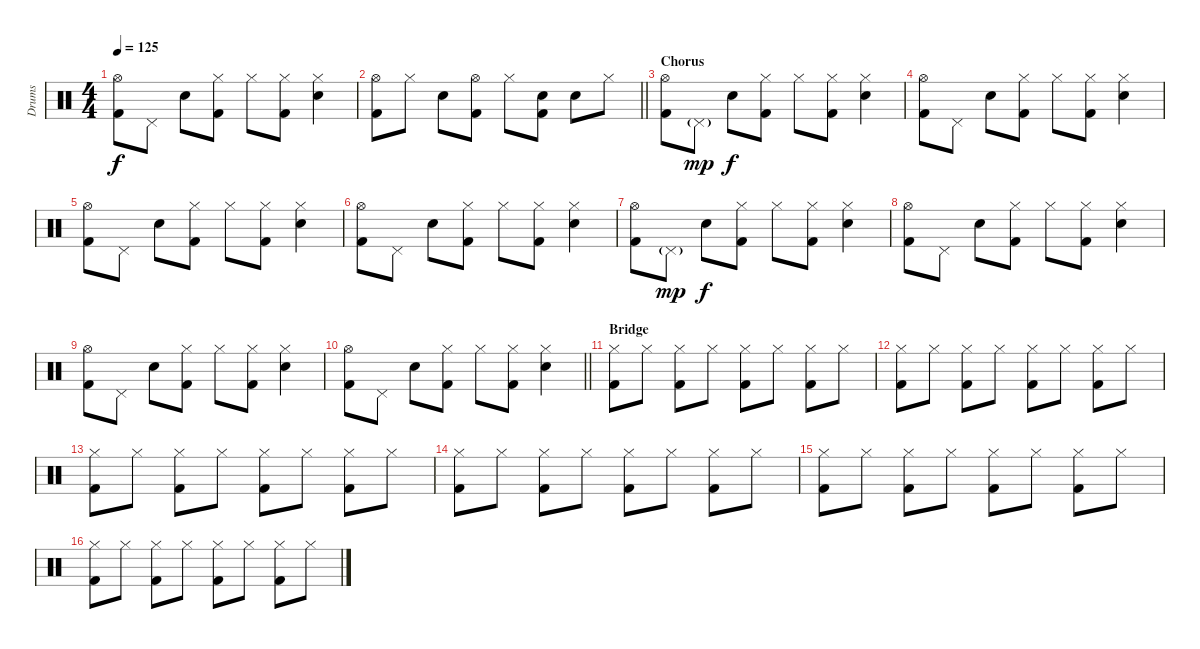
\track ("Drums" "Drums") {instrument percussion}
\staff {score}
\articulation defaults
\ts (4 4)
\tempo 125
\clef neutral
\ks c
("Hi-Hat (open)" "Kick (hit) 2").8{dy f} "Pedal Hi-Hat (hit)".8 "Hand Clap (hit)".8 ("Hi-Hat (closed)" "Kick (hit) 2").8 "Hi-Hat (closed)".8 ("Hi-Hat (closed)" "Kick (hit) 2").8 ("Hi-Hat (closed)" "Hand Clap (hit)").4 |
\barLineRight lightlight
("Hi-Hat (open)" "Kick (hit) 2").8 "Hi-Hat (closed)".8 "Hand Clap (hit)".8 ("Hi-Hat (open)" "Kick (hit) 2").8 "Hi-Hat (closed)".8 ("Hand Clap (hit)" "Kick (hit) 2").8 "Hand Clap (hit)".8 "Hi-Hat (closed)".8 |
\section ("" "Chorus")
("Hi-Hat (open)" "Kick (hit) 2").8 "Pedal Hi-Hat (hit)"{g}.8{dy mp} "Hand Clap (hit)".8{dy f} ("Hi-Hat (closed)" "Kick (hit) 2").8 "Hi-Hat (closed)".8 ("Hi-Hat (closed)" "Kick (hit) 2").8 ("Hi-Hat (closed)" "Hand Clap (hit)").4 |
("Hi-Hat (open)" "Kick (hit) 2").8 "Pedal Hi-Hat (hit)".8 "Hand Clap (hit)".8 ("Hi-Hat (closed)" "Kick (hit) 2").8 "Hi-Hat (closed)".8 ("Hi-Hat (closed)" "Kick (hit) 2").8 ("Hi-Hat (closed)" "Hand Clap (hit)").4 |
("Hi-Hat (open)" "Kick (hit) 2").8 "Pedal Hi-Hat (hit)".8 "Hand Clap (hit)".8 ("Hi-Hat (closed)" "Kick (hit) 2").8 "Hi-Hat (closed)".8 ("Hi-Hat (closed)" "Kick (hit) 2").8 ("Hi-Hat (closed)" "Hand Clap (hit)").4 |
("Hi-Hat (open)" "Kick (hit) 2").8 "Pedal Hi-Hat (hit)".8 "Hand Clap (hit)".8 ("Hi-Hat (closed)" "Kick (hit) 2").8 "Hi-Hat (closed)".8 ("Hi-Hat (closed)" "Kick (hit) 2").8 ("Hi-Hat (closed)" "Hand Clap (hit)").4 |
("Hi-Hat (open)" "Kick (hit) 2").8 "Pedal Hi-Hat (hit)"{g}.8{dy mp} "Hand Clap (hit)".8{dy f} ("Hi-Hat (closed)" "Kick (hit) 2").8 "Hi-Hat (closed)".8 ("Hi-Hat (closed)" "Kick (hit) 2").8 ("Hi-Hat (closed)" "Hand Clap (hit)").4 |
("Hi-Hat (open)" "Kick (hit) 2").8 "Pedal Hi-Hat (hit)".8 "Hand Clap (hit)".8 ("Hi-Hat (closed)" "Kick (hit) 2").8 "Hi-Hat (closed)".8 ("Hi-Hat (closed)" "Kick (hit) 2").8 ("Hi-Hat (closed)" "Hand Clap (hit)").4 |
("Hi-Hat (open)" "Kick (hit) 2").8 "Pedal Hi-Hat (hit)".8 "Hand Clap (hit)".8 ("Hi-Hat (closed)" "Kick (hit) 2").8 "Hi-Hat (closed)".8 ("Hi-Hat (closed)" "Kick (hit) 2").8 ("Hi-Hat (closed)" "Hand Clap (hit)").4 |
\barLineRight lightlight
("Hi-Hat (open)" "Kick (hit) 2").8 "Pedal Hi-Hat (hit)".8 "Hand Clap (hit)".8 ("Hi-Hat (closed)" "Kick (hit) 2").8 "Hi-Hat (closed)".8 ("Hi-Hat (closed)" "Kick (hit) 2").8 ("Hi-Hat (closed)" "Hand Clap (hit)").4 |
\section ("" "Bridge")
("Hi-Hat (closed)" "Kick (hit) 2").8 "Hi-Hat (closed)".8 ("Hi-Hat (closed)" "Kick (hit) 2").8 "Hi-Hat (closed)".8 ("Hi-Hat (closed)" "Kick (hit) 2").8 "Hi-Hat (closed)".8 ("Hi-Hat (closed)" "Kick (hit) 2").8 "Hi-Hat (closed)".8 |
("Hi-Hat (closed)" "Kick (hit) 2").8 "Hi-Hat (closed)".8 ("Hi-Hat (closed)" "Kick (hit) 2").8 "Hi-Hat (closed)".8 ("Hi-Hat (closed)" "Kick (hit) 2").8 "Hi-Hat (closed)".8 ("Hi-Hat (closed)" "Kick (hit) 2").8 "Hi-Hat (closed)".8 |
("Hi-Hat (closed)" "Kick (hit) 2").8 "Hi-Hat (closed)".8 ("Hi-Hat (closed)" "Kick (hit) 2").8 "Hi-Hat (closed)".8 ("Hi-Hat (closed)" "Kick (hit) 2").8 "Hi-Hat (closed)".8 ("Hi-Hat (closed)" "Kick (hit) 2").8 "Hi-Hat (closed)".8 |
("Hi-Hat (closed)" "Kick (hit) 2").8 "Hi-Hat (closed)".8 ("Hi-Hat (closed)" "Kick (hit) 2").8 "Hi-Hat (closed)".8 ("Hi-Hat (closed)" "Kick (hit) 2").8 "Hi-Hat (closed)".8 ("Hi-Hat (closed)" "Kick (hit) 2").8 "Hi-Hat (closed)".8 |
("Hi-Hat (closed)" "Kick (hit) 2").8 "Hi-Hat (closed)".8 ("Hi-Hat (closed)" "Kick (hit) 2").8 "Hi-Hat (closed)".8 ("Hi-Hat (closed)" "Kick (hit) 2").8 "Hi-Hat (closed)".8 ("Hi-Hat (closed)" "Kick (hit) 2").8 "Hi-Hat (closed)".8 |
("Hi-Hat (closed)" "Kick (hit) 2").8 "Hi-Hat (closed)".8 ("Hi-Hat (closed)" "Kick (hit) 2").8 "Hi-Hat (closed)".8 ("Hi-Hat (closed)" "Kick (hit) 2").8 "Hi-Hat (closed)".8 ("Hi-Hat (closed)" "Kick (hit) 2").8 "Hi-Hat (closed)".8
